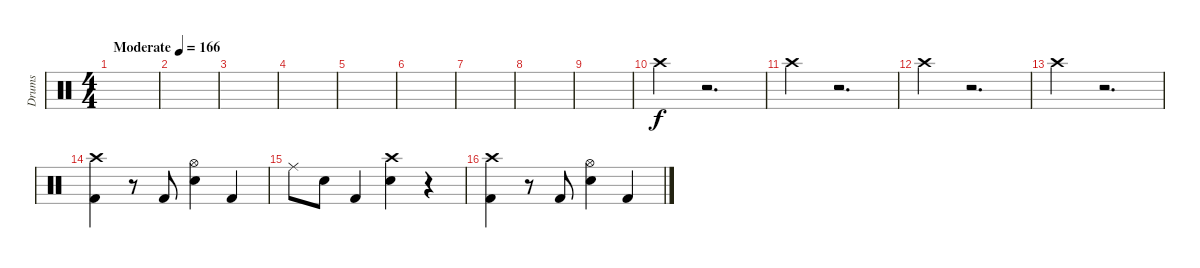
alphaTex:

\track ("Drums" "Drums") {instrument percussion}
\staff {score}
\articulation defaults
\ts (4 4)
\tempo (166 "Moderate")
\clef neutral
\ks c
|
|
|
|
|
|
|
|
|
"Crash high (hit)".4 r.2{d} |
"Crash high (hit)".4 r.2{d} |
"Crash high (hit)".4 r.2{d} |
"Crash high (hit)".4 r.2{d} |
("Crash high (hit)" "Kick (hit) 2").4 r.8 "Kick (hit) 2".8 ("Hi-Hat (open)" "Snare (hit) 2").4 "Kick (hit) 2".4 |
"Ride (middle)".8 "Snare (hit) 2".8 "Kick (hit) 2".4 ("Crash high (hit)" "Snare (hit) 2").4 r.4 |
("Crash high (hit)" "Kick (hit) 2").4 r.8 "Kick (hit) 2".8 ("Hi-Hat (open)" "Snare (hit) 2").4 "Kick (hit) 2".4
